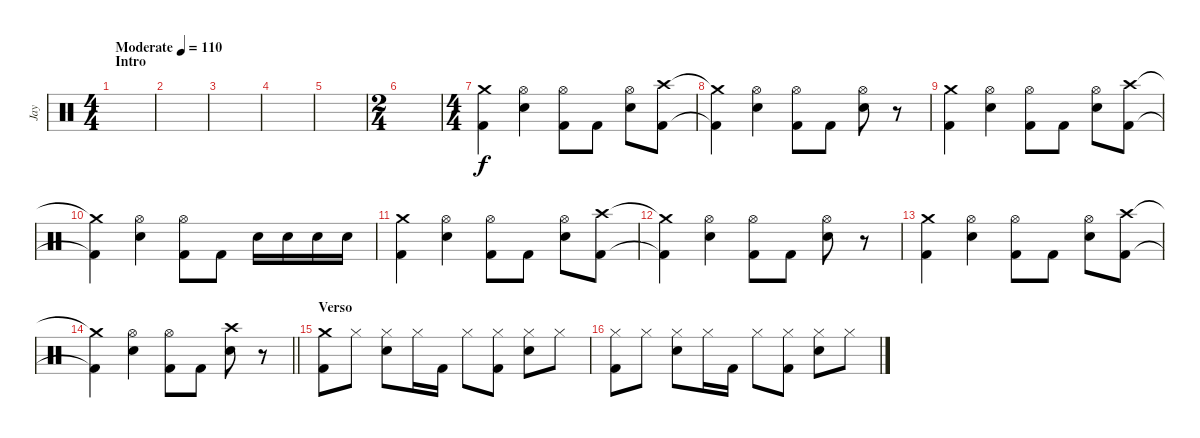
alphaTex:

\track ("Jay" "Jay") {instrument percussion}
\staff {score}
\articulation defaults
\ts (4 4)
\section ("" "Intro")
\tempo (110 "Moderate")
\clef neutral
\ks c
|
|
|
|
|
\ts (2 4)
|
\ts (4 4)
("Crash medium (hit)" "Kick (hit) 2").4 ("Hi-Hat (open)" "Electric Snare (hit)").4 ("Hi-Hat (open)" "Kick (hit) 2").8 "Kick (hit) 2".8 ("Hi-Hat (open)" "Electric Snare (hit)").8 ("Crash high (hit)" "Kick (hit) 2").8 |
("Crash medium (hit)"{t} "Kick (hit) 2"{t}).4 ("Hi-Hat (open)" "Electric Snare (hit)").4 ("Hi-Hat (open)" "Kick (hit) 2").8 "Kick (hit) 2".8 ("Hi-Hat (open)" "Electric Snare (hit)").8 r.8 |
("Crash medium (hit)" "Kick (hit) 2").4 ("Hi-Hat (open)" "Electric Snare (hit)").4 ("Hi-Hat (open)" "Kick (hit) 2").8 "Kick (hit) 2".8 ("Hi-Hat (open)" "Electric Snare (hit)").8 ("Crash high (hit)" "Kick (hit) 2").8 |
("Crash medium (hit)"{t} "Kick (hit) 2"{t}).4 ("Hi-Hat (open)" "Electric Snare (hit)").4 ("Hi-Hat (open)" "Kick (hit) 2").8 "Kick (hit) 2".8 "Electric Snare (hit)".16 "Electric Snare (hit)".16 "Electric Snare (hit)".16 "Electric Snare (hit)".16 |
("Crash medium (hit)" "Kick (hit) 2").4 ("Hi-Hat (open)" "Electric Snare (hit)").4 ("Hi-Hat (open)" "Kick (hit) 2").8 "Kick (hit) 2".8 ("Hi-Hat (open)" "Electric Snare (hit)").8 ("Crash high (hit)" "Kick (hit) 2").8 |
("Crash medium (hit)"{t} "Kick (hit) 2"{t}).4 ("Hi-Hat (open)" "Electric Snare (hit)").4 ("Hi-Hat (open)" "Kick (hit) 2").8 "Kick (hit) 2".8 ("Hi-Hat (open)" "Electric Snare (hit)").8 r.8 |
("Crash medium (hit)" "Kick (hit) 2").4 ("Hi-Hat (open)" "Electric Snare (hit)").4 ("Hi-Hat (open)" "Kick (hit) 2").8 "Kick (hit) 2".8 ("Hi-Hat (open)" "Electric Snare (hit)").8 ("Crash high (hit)" "Kick (hit) 2").8 |
\barLineRight lightlight
("Crash medium (hit)"{t} "Kick (hit) 2"{t}).4 ("Hi-Hat (open)" "Electric Snare (hit)").4 ("Hi-Hat (open)" "Kick (hit) 2").8 "Kick (hit) 2".8 ("Crash high (hit)" "Electric Snare (hit)").8 r.8 |
\section ("" "Verso")
("Crash medium (hit)" "Kick (hit) 2").8 "Hi-Hat (closed)".8 ("Hi-Hat (closed)" "Electric Snare (hit)").8 "Hi-Hat (closed)".16 "Kick (hit) 2".16 "Hi-Hat (closed)".8 ("Hi-Hat (closed)" "Kick (hit) 2").8 ("Hi-Hat (closed)" "Electric Snare (hit)").8 "Hi-Hat (closed)".8 |
("Hi-Hat (closed)" "Kick (hit) 2").8 "Hi-Hat (closed)".8 ("Hi-Hat (closed)" "Electric Snare (hit)").8 "Hi-Hat (closed)".16 "Kick (hit) 2".16 "Hi-Hat (closed)".8 ("Hi-Hat (closed)" "Kick (hit) 2").8 ("Hi-Hat (closed)" "Electric Snare (hit)").8 "Hi-Hat (closed)".8
